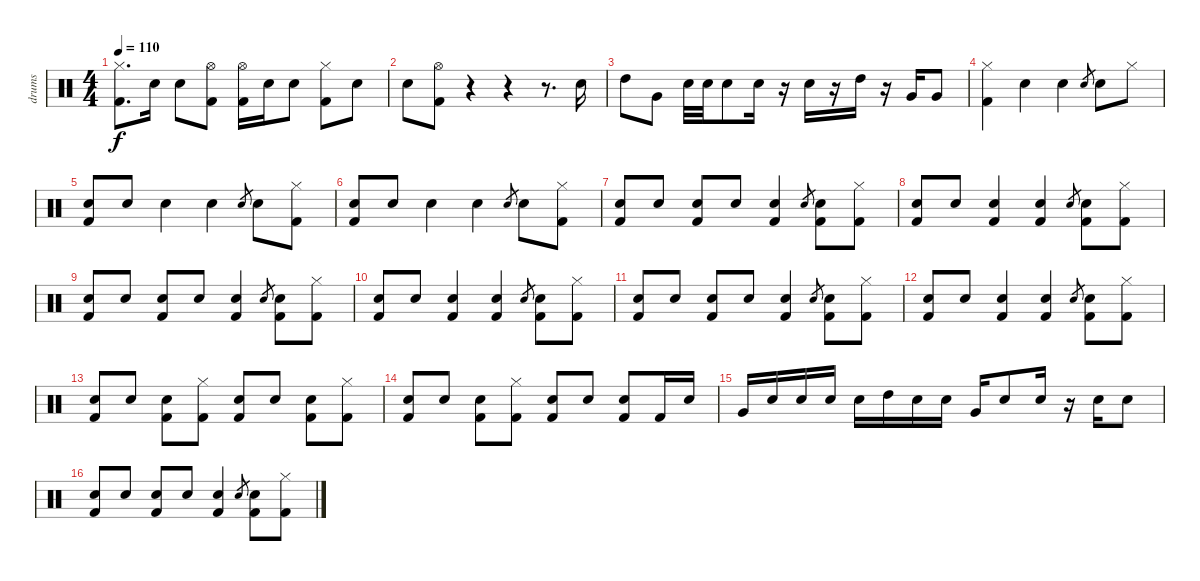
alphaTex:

\track ("drums" "drums") {instrument percussion}
\staff {score}
\articulation defaults
\ts (4 4)
\tempo 110
\clef neutral
\ks c
("Hi-Hat (closed)" "Kick (hit) 2").8{d dy f} "Snare (hit) 2".16 "Snare (hit) 2".8 ("Hi-Hat (open)" "Kick (hit) 2").8 ("Hi-Hat (open)" "Kick (hit) 2").16 "Snare (hit) 2".16 "Snare (hit) 2".8 ("Hi-Hat (closed)" "Kick (hit) 2").8 "Snare (hit) 2".8 |
"Snare (hit) 2".8 ("Hi-Hat (open)" "Kick (hit) 2").8 r.4 r.4 r.8{d} "Snare (hit) 2".16 |
"High Tom (hit)".8 "Very Low Tom (hit)".8 "Snare (hit) 2".32 "Snare (hit) 2".32 "Snare (hit) 2".8 "Snare (hit) 2".16 r.16 "Snare (hit) 2".16 r.16 "High Tom (hit)".16 r.16 "Very Low Tom (hit)".16 "Very Low Tom (hit)".8 |
("Hi-Hat (closed)" "Kick (hit) 2").4 "Snare (hit) 2".4 "Snare (hit) 2".4 "Snare (hit) 2".8{gr} "Snare (hit) 2".8 "Hi-Hat (closed)".8 |
("Kick (hit) 2" "Snare (hit) 2").8 "Snare (hit) 2".8 "Snare (hit) 2".4 "Snare (hit) 2".4 "Snare (hit) 2".8{gr} "Snare (hit) 2".8 ("Kick (hit) 2" "Hi-Hat (closed)").8 |
("Kick (hit) 2" "Snare (hit) 2").8 "Snare (hit) 2".8 "Snare (hit) 2".4 "Snare (hit) 2".4 "Snare (hit) 2".8{gr} "Snare (hit) 2".8 ("Kick (hit) 2" "Hi-Hat (closed)").8 |
("Kick (hit) 2" "Snare (hit) 2").8 "Snare (hit) 2".8 ("Kick (hit) 2" "Snare (hit) 2").8 "Snare (hit) 2".8 ("Snare (hit) 2" "Kick (hit) 2").4 "Snare (hit) 2".8{gr} ("Snare (hit) 2" "Kick (hit) 2").8 ("Kick (hit) 2" "Hi-Hat (closed)").8 |
("Kick (hit) 2" "Snare (hit) 2").8 "Snare (hit) 2".8 ("Snare (hit) 2" "Kick (hit) 2").4 ("Snare (hit) 2" "Kick (hit) 2").4 "Snare (hit) 2".8{gr} ("Kick (hit) 2" "Snare (hit) 2").8 ("Kick (hit) 2" "Hi-Hat (closed)").8 |
("Kick (hit) 2" "Snare (hit) 2").8 "Snare (hit) 2".8 ("Kick (hit) 2" "Snare (hit) 2").8 "Snare (hit) 2".8 ("Snare (hit) 2" "Kick (hit) 2").4 "Snare (hit) 2".8{gr} ("Snare (hit) 2" "Kick (hit) 2").8 ("Kick (hit) 2" "Hi-Hat (closed)").8 |
("Kick (hit) 2" "Snare (hit) 2").8 "Snare (hit) 2".8 ("Snare (hit) 2" "Kick (hit) 2").4 ("Snare (hit) 2" "Kick (hit) 2").4 "Snare (hit) 2".8{gr} ("Kick (hit) 2" "Snare (hit) 2").8 ("Kick (hit) 2" "Hi-Hat (closed)").8 |
("Kick (hit) 2" "Snare (hit) 2").8 "Snare (hit) 2".8 ("Kick (hit) 2" "Snare (hit) 2").8 "Snare (hit) 2".8 ("Snare (hit) 2" "Kick (hit) 2").4 "Snare (hit) 2".8{gr} ("Snare (hit) 2" "Kick (hit) 2").8 ("Kick (hit) 2" "Hi-Hat (closed)").8 |
("Kick (hit) 2" "Snare (hit) 2").8 "Snare (hit) 2".8 ("Snare (hit) 2" "Kick (hit) 2").4 ("Snare (hit) 2" "Kick (hit) 2").4 "Snare (hit) 2".8{gr} ("Kick (hit) 2" "Snare (hit) 2").8 ("Kick (hit) 2" "Hi-Hat (closed)").8 |
("Kick (hit) 2" "Snare (hit) 2").8 "Snare (hit) 2".8 ("Kick (hit) 2" "Snare (hit) 2").8 ("Hi-Hat (closed)" "Kick (hit) 2").8 ("Kick (hit) 2" "Snare (hit) 2").8 "Snare (hit) 2".8 ("Snare (hit) 2" "Kick (hit) 2").8 ("Hi-Hat (closed)" "Kick (hit) 2").8 |
("Snare (hit) 2" "Kick (hit) 2").8 "Snare (hit) 2".8 ("Kick (hit) 2" "Snare (hit) 2").8 ("Hi-Hat (closed)" "Kick (hit) 2").8 ("Snare (hit) 2" "Kick (hit) 2").8 "Snare (hit) 2".8 ("Snare (hit) 2" "Kick (hit) 2").8 "Kick (hit) 2".16 "Snare (hit) 2".16 |
"Very Low Tom (hit)".16 "Snare (hit) 2".16 "Snare (hit) 2".16 "Snare (hit) 2".16 "Snare (hit) 2".16 "High Tom (hit)".16 "Snare (hit) 2".16 "Snare (hit) 2".16 "Very Low Tom (hit)".16 "Snare (hit) 2".8 "Snare (hit) 2".16 r.16 "Snare (hit) 2".16 "Snare (hit) 2".8 |
("Kick (hit) 2" "Snare (hit) 2").8 "Snare (hit) 2".8 ("Kick (hit) 2" "Snare (hit) 2").8 "Snare (hit) 2".8 ("Snare (hit) 2" "Kick (hit) 2").4 "Snare (hit) 2".8{gr} ("Snare (hit) 2" "Kick (hit) 2").8 ("Kick (hit) 2" "Hi-Hat (closed)").8
